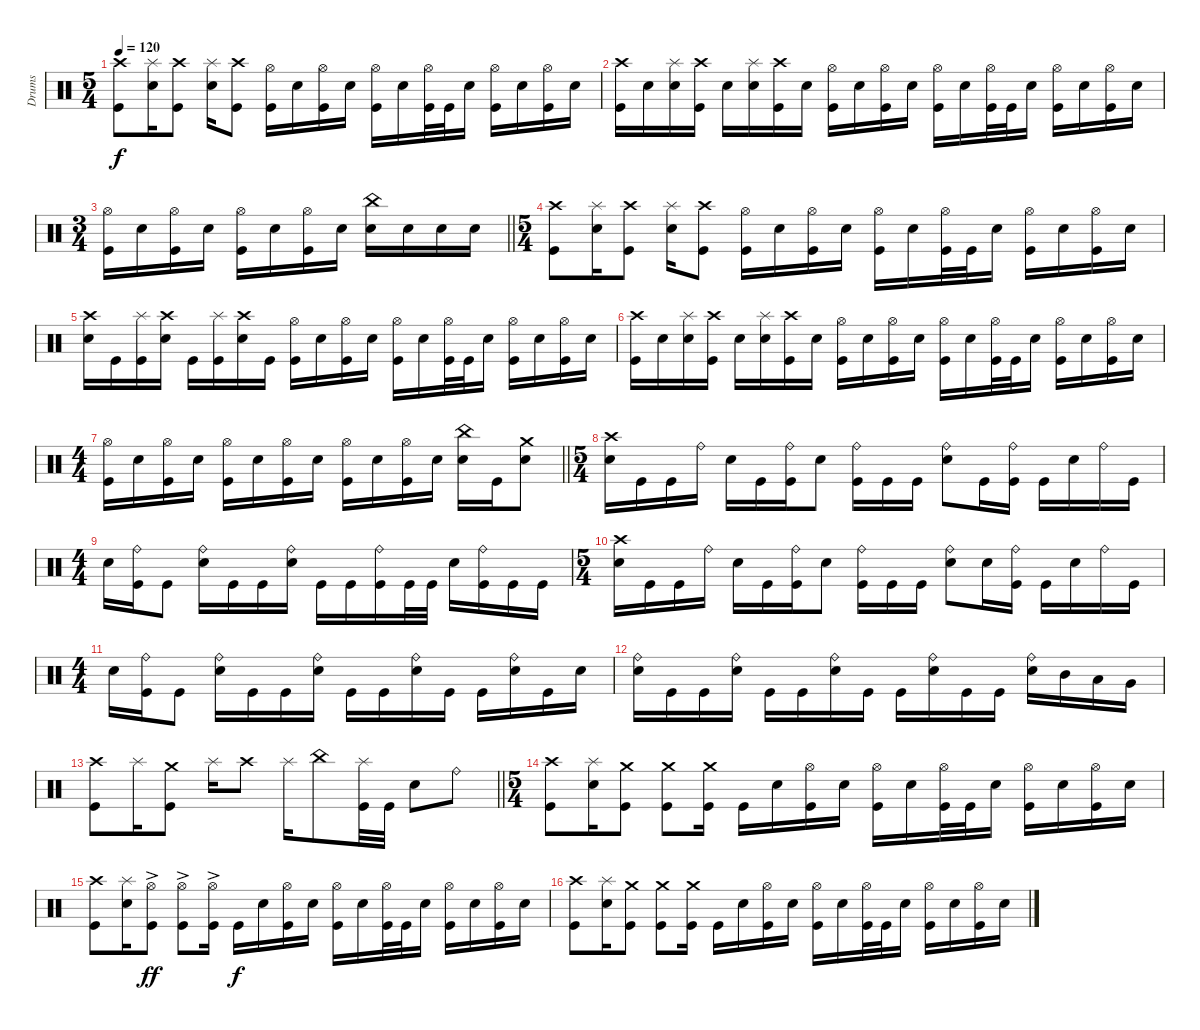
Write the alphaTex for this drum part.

\track ("Drums" "Drums") {instrument percussion}
\staff
\articulation defaults
\ts (5 4)
\tempo 120
\clef neutral
\ks c
("Crash high (hit)" "Kick (hit)").8{dy f} ("Splash (hit)" "Electric Snare (hit)").16 ("Crash high (hit)" "Kick (hit)").8 ("Splash (hit)" "Electric Snare (hit)").16 ("Crash high (hit)" "Kick (hit)").8 ("Hi-Hat (open)" "Kick (hit)").16 "Electric Snare (hit)".16 ("Hi-Hat (open)" "Kick (hit)").16 "Electric Snare (hit)".16 ("Hi-Hat (open)" "Kick (hit)").16 "Electric Snare (hit)".16 ("Hi-Hat (open)" "Kick (hit)").32 "Kick (hit)".32 "Electric Snare (hit)".16 ("Hi-Hat (open)" "Kick (hit)").16 "Electric Snare (hit)".16 ("Hi-Hat (open)" "Kick (hit)").16 "Electric Snare (hit)".16 |
("Crash high (hit)" "Kick (hit)").16 "Electric Snare (hit)".16 ("Splash (hit)" "Electric Snare (hit)").16 ("Crash high (hit)" "Kick (hit)").16 "Electric Snare (hit)".16 ("Splash (hit)" "Electric Snare (hit)").16 ("Crash high (hit)" "Kick (hit)").16 "Electric Snare (hit)".16 ("Hi-Hat (open)" "Kick (hit)").16 "Electric Snare (hit)".16 ("Hi-Hat (open)" "Kick (hit)").16 "Electric Snare (hit)".16 ("Hi-Hat (open)" "Kick (hit)").16 "Electric Snare (hit)".16 ("Hi-Hat (open)" "Kick (hit)").32 "Kick (hit)".32 "Electric Snare (hit)".16 ("Hi-Hat (open)" "Kick (hit)").16 "Electric Snare (hit)".16 ("Hi-Hat (open)" "Kick (hit)").16 "Electric Snare (hit)".16 |
\ts (3 4)
\barLineRight lightlight
("Hi-Hat (open)" "Kick (hit)").16 "Electric Snare (hit)".16 ("Hi-Hat (open)" "Kick (hit)").16 "Electric Snare (hit)".16 ("Hi-Hat (open)" "Kick (hit)").16 "Electric Snare (hit)".16 ("Hi-Hat (open)" "Kick (hit)").16 "Electric Snare (hit)".16 ("China (hit)" "Electric Snare (hit)").16 "Electric Snare (hit)".16 "Electric Snare (hit)".16 "Electric Snare (hit)".16 |
\ts (5 4)
("Crash high (hit)" "Kick (hit)").8 ("Splash (hit)" "Electric Snare (hit)").16 ("Crash high (hit)" "Kick (hit)").8 ("Splash (hit)" "Electric Snare (hit)").16 ("Crash high (hit)" "Kick (hit)").8 ("Hi-Hat (open)" "Kick (hit)").16 "Electric Snare (hit)".16 ("Hi-Hat (open)" "Kick (hit)").16 "Electric Snare (hit)".16 ("Hi-Hat (open)" "Kick (hit)").16 "Electric Snare (hit)".16 ("Hi-Hat (open)" "Kick (hit)").32 "Kick (hit)".32 "Electric Snare (hit)".16 ("Hi-Hat (open)" "Kick (hit)").16 "Electric Snare (hit)".16 ("Hi-Hat (open)" "Kick (hit)").16 "Electric Snare (hit)".16 |
("Crash high (hit)" "Electric Snare (hit)").16 "Kick (hit)".16 ("Splash (hit)" "Kick (hit)").16 ("Crash high (hit)" "Electric Snare (hit)").16 "Kick (hit)".16 ("Splash (hit)" "Kick (hit)").16 ("Crash high (hit)" "Electric Snare (hit)").16 "Kick (hit)".16 ("Hi-Hat (open)" "Kick (hit)").16 "Electric Snare (hit)".16 ("Hi-Hat (open)" "Kick (hit)").16 "Electric Snare (hit)".16 ("Hi-Hat (open)" "Kick (hit)").16 "Electric Snare (hit)".16 ("Hi-Hat (open)" "Kick (hit)").32 "Kick (hit)".32 "Electric Snare (hit)".16 ("Hi-Hat (open)" "Kick (hit)").16 "Electric Snare (hit)".16 ("Hi-Hat (open)" "Kick (hit)").16 "Electric Snare (hit)".16 |
("Crash high (hit)" "Kick (hit)").16 "Electric Snare (hit)".16 ("Splash (hit)" "Electric Snare (hit)").16 ("Crash high (hit)" "Kick (hit)").16 "Electric Snare (hit)".16 ("Splash (hit)" "Electric Snare (hit)").16 ("Crash high (hit)" "Kick (hit)").16 "Electric Snare (hit)".16 ("Hi-Hat (open)" "Kick (hit)").16 "Electric Snare (hit)".16 ("Hi-Hat (open)" "Kick (hit)").16 "Electric Snare (hit)".16 ("Hi-Hat (open)" "Kick (hit)").16 "Electric Snare (hit)".16 ("Hi-Hat (open)" "Kick (hit)").32 "Kick (hit)".32 "Electric Snare (hit)".16 ("Hi-Hat (open)" "Kick (hit)").16 "Electric Snare (hit)".16 ("Hi-Hat (open)" "Kick (hit)").16 "Electric Snare (hit)".16 |
\ts (4 4)
\barLineRight lightlight
("Hi-Hat (open)" "Kick (hit)").16 "Electric Snare (hit)".16 ("Hi-Hat (open)" "Kick (hit)").16 "Electric Snare (hit)".16 ("Hi-Hat (open)" "Kick (hit)").16 "Electric Snare (hit)".16 ("Hi-Hat (open)" "Kick (hit)").16 "Electric Snare (hit)".16 ("Hi-Hat (open)" "Kick (hit)").16 "Electric Snare (hit)".16 ("Hi-Hat (open)" "Kick (hit)").16 "Electric Snare (hit)".16 ("China (hit)" "Electric Snare (hit)").16 "Kick (hit)".16 ("Crash medium (hit)" "Electric Snare (hit)").8 |
\ts (5 4)
\section ("" "")
("Crash high (hit)" "Electric Snare (hit)").16 "Kick (hit)".16 "Kick (hit)".16 "Ride (bell)".16 "Electric Snare (hit)".16 "Kick (hit)".16 ("Ride (bell)" "Kick (hit)").16 "Electric Snare (hit)".8 ("Ride (bell)" "Kick (hit)").16 "Kick (hit)".16 "Kick (hit)".16 ("Ride (bell)" "Electric Snare (hit)").8 "Kick (hit)".16 ("Ride (bell)" "Kick (hit)").16 "Kick (hit)".16 "Electric Snare (hit)".16 "Ride (bell)".16 "Kick (hit)".16 |
\ts (4 4)
"Electric Snare (hit)".16 ("Ride (bell)" "Kick (hit)").16 "Kick (hit)".8 ("Ride (bell)" "Electric Snare (hit)").16 "Kick (hit)".16 "Kick (hit)".16 ("Ride (bell)" "Electric Snare (hit)").16 "Kick (hit)".16 "Kick (hit)".16 ("Ride (bell)" "Kick (hit)").16 "Kick (hit)".32 "Kick (hit)".32 "Electric Snare (hit)".16 ("Ride (bell)" "Kick (hit)").16 "Kick (hit)".16 "Kick (hit)".16 |
\ts (5 4)
("Crash high (hit)" "Electric Snare (hit)").16 "Kick (hit)".16 "Kick (hit)".16 "Ride (bell)".16 "Electric Snare (hit)".16 "Kick (hit)".16 ("Ride (bell)" "Kick (hit)").16 "Electric Snare (hit)".8 ("Ride (bell)" "Kick (hit)").16 "Kick (hit)".16 "Kick (hit)".16 ("Ride (bell)" "Electric Snare (hit)").8 "Electric Snare (hit)".16 ("Ride (bell)" "Kick (hit)").16 "Kick (hit)".16 "Electric Snare (hit)".16 "Ride (bell)".16 "Kick (hit)".16 |
\ts (4 4)
"Electric Snare (hit)".16 ("Ride (bell)" "Kick (hit)").16 "Kick (hit)".8 ("Ride (bell)" "Electric Snare (hit)").16 "Kick (hit)".16 "Kick (hit)".16 ("Ride (bell)" "Electric Snare (hit)").16 "Kick (hit)".16 "Kick (hit)".16 ("Ride (bell)" "Electric Snare (hit)").16 "Kick (hit)".16 "Kick (hit)".16 ("Ride (bell)" "Electric Snare (hit)").16 "Kick (hit)".16 "Electric Snare (hit)".16 |
("Ride (bell)" "Electric Snare (hit)").16 "Kick (hit)".16 "Kick (hit)".16 ("Ride (bell)" "Electric Snare (hit)").16 "Kick (hit)".16 "Kick (hit)".16 ("Ride (bell)" "Electric Snare (hit)").16 "Kick (hit)".16 "Kick (hit)".16 ("Ride (bell)" "Electric Snare (hit)").16 "Kick (hit)".16 "Kick (hit)".16 ("Ride (bell)" "Electric Snare (hit)").16 "Mid Tom (hit)".16 "Low Tom (hit)".16 "Very Low Tom (hit)".16 |
\barLineRight lightlight
("Crash high (hit)" "Kick (hit)").8 "Splash (hit)".16 ("Crash medium (hit)" "Kick (hit)").8 "Splash (hit)".16 "Crash high (hit)".8 "Splash (hit)".16 "China (hit)".8 ("Splash (hit)" "Kick (hit)").32 "Kick (hit)".32 "Electric Snare (hit)".8 "Ride (bell)".8 |
\ts (5 4)
\section ("" "")
("Crash high (hit)" "Kick (hit)").8 ("Splash (hit)" "Electric Snare (hit)").16 ("Crash medium (hit)" "Kick (hit)").8 ("Crash medium (hit)" "Kick (hit)").8 ("Crash medium (hit)" "Kick (hit)").16 "Kick (hit)".16 "Electric Snare (hit)".16 ("Hi-Hat (open)" "Kick (hit)").16 "Electric Snare (hit)".16 ("Hi-Hat (open)" "Kick (hit)").16 "Electric Snare (hit)".16 ("Hi-Hat (open)" "Kick (hit)").32 "Kick (hit)".32 "Electric Snare (hit)".16 ("Hi-Hat (open)" "Kick (hit)").16 "Electric Snare (hit)".16 ("Hi-Hat (open)" "Kick (hit)").16 "Electric Snare (hit)".16 |
("Crash high (hit)" "Kick (hit)").8 ("Splash (hit)" "Electric Snare (hit)").16 ("Hi-Hat (open)"{ac} "Kick (hit)").8{dy ff} ("Hi-Hat (open)"{ac} "Kick (hit)").8 ("Hi-Hat (open)"{ac} "Kick (hit)").16 "Kick (hit)".16{dy f} "Electric Snare (hit)".16 ("Hi-Hat (open)" "Kick (hit)").16 "Electric Snare (hit)".16 ("Hi-Hat (open)" "Kick (hit)").16 "Electric Snare (hit)".16 ("Hi-Hat (open)" "Kick (hit)").32 "Kick (hit)".32 "Electric Snare (hit)".16 ("Hi-Hat (open)" "Kick (hit)").16 "Electric Snare (hit)".16 ("Hi-Hat (open)" "Kick (hit)").16 "Electric Snare (hit)".16 |
("Crash high (hit)" "Kick (hit)").8 ("Splash (hit)" "Electric Snare (hit)").16 ("Crash medium (hit)" "Kick (hit)").8 ("Crash medium (hit)" "Kick (hit)").8 ("Crash medium (hit)" "Kick (hit)").16 "Kick (hit)".16 "Electric Snare (hit)".16 ("Hi-Hat (open)" "Kick (hit)").16 "Electric Snare (hit)".16 ("Hi-Hat (open)" "Kick (hit)").16 "Electric Snare (hit)".16 ("Hi-Hat (open)" "Kick (hit)").32 "Kick (hit)".32 "Electric Snare (hit)".16 ("Hi-Hat (open)" "Kick (hit)").16 "Electric Snare (hit)".16 ("Hi-Hat (open)" "Kick (hit)").16 "Electric Snare (hit)".16
